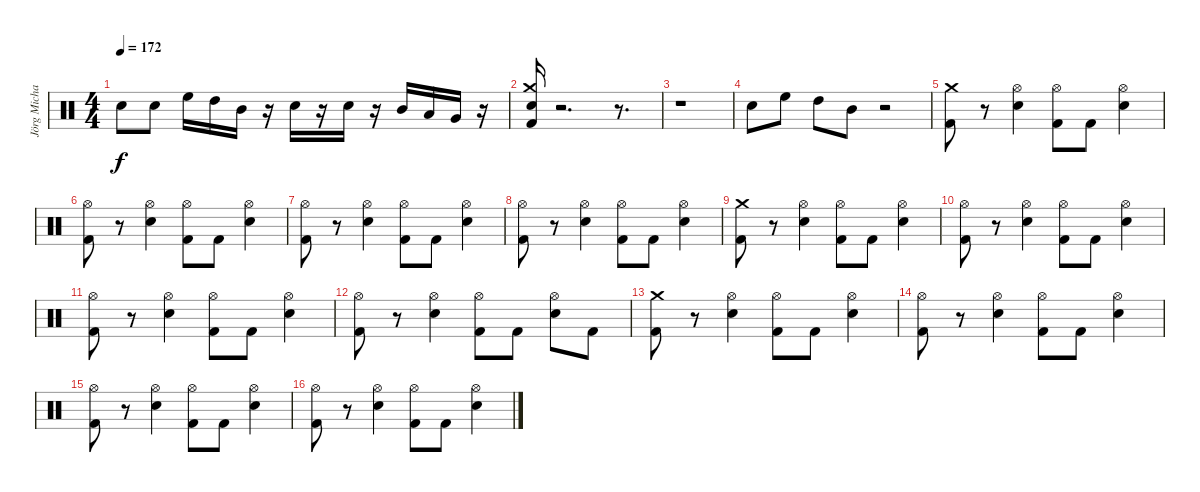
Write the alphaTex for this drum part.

\track ("Jörg Michael" "Jörg Micha") {instrument percussion}
\staff {score}
\articulation defaults
\ts (4 4)
\tempo 172
\clef neutral
\ks c "Electric Snare (hit)".8{dy f} "Electric Snare (hit)".8 "High Floor Tom (hit)".16 "High Tom (hit)".16 "Mid Tom (hit)".16
r.16 "Electric Snare (hit)".16 r.16 "Electric Snare (hit)".16 r.16 "Mid Tom (hit)".16 "Low Tom (hit)".16 "Very Low Tom (hit)".16 r.16 |
("Crash medium (hit)" "Kick (hit) 2" "Electric Snare (hit)").16 r.2{d} r.8{d} |
r.1 |
"Electric Snare (hit)".8 "High Floor Tom (hit)".8 "High Tom (hit)".8 "Mid Tom (hit)".8 r.2 |
("Kick (hit) 2" "Crash medium (hit)").8 r.8 ("Hi-Hat (open)" "Electric Snare (hit)").4 ("Hi-Hat (open)" "Kick (hit) 2").8 "Kick (hit) 2".8 ("Hi-Hat (open)" "Electric Snare (hit)").4 |
("Hi-Hat (open)" "Kick (hit) 2").8 r.8 ("Hi-Hat (open)" "Electric Snare (hit)").4 ("Hi-Hat (open)" "Kick (hit) 2").8 "Kick (hit) 2".8 ("Hi-Hat (open)" "Electric Snare (hit)").4 |
("Hi-Hat (open)" "Kick (hit) 2").8 r.8 ("Hi-Hat (open)" "Electric Snare (hit)").4 ("Hi-Hat (open)" "Kick (hit) 2").8 "Kick (hit) 2".8 ("Hi-Hat (open)" "Electric Snare (hit)").4 |
("Hi-Hat (open)" "Kick (hit) 2").8 r.8 ("Hi-Hat (open)" "Electric Snare (hit)").4 ("Hi-Hat (open)" "Kick (hit) 2").8 "Kick (hit) 2".8 ("Hi-Hat (open)" "Electric Snare (hit)").4 |
("Kick (hit) 2" "Crash medium (hit)").8 r.8 ("Hi-Hat (open)" "Electric Snare (hit)").4 ("Hi-Hat (open)" "Kick (hit) 2").8 "Kick (hit) 2".8 ("Hi-Hat (open)" "Electric Snare (hit)").4 |
("Hi-Hat (open)" "Kick (hit) 2").8 r.8 ("Hi-Hat (open)" "Electric Snare (hit)").4 ("Hi-Hat (open)" "Kick (hit) 2").8 "Kick (hit) 2".8 ("Hi-Hat (open)" "Electric Snare (hit)").4 |
("Hi-Hat (open)" "Kick (hit) 2").8 r.8 ("Hi-Hat (open)" "Electric Snare (hit)").4 ("Hi-Hat (open)" "Kick (hit) 2").8 "Kick (hit) 2".8 ("Hi-Hat (open)" "Electric Snare (hit)").4 |
("Hi-Hat (open)" "Kick (hit) 2").8 r.8 ("Hi-Hat (open)" "Electric Snare (hit)").4 ("Hi-Hat (open)" "Kick (hit) 2").8 "Kick (hit) 2".8 ("Hi-Hat (open)" "Electric Snare (hit)").8 "Kick (hit) 2".8 |
("Kick (hit) 2" "Crash medium (hit)").8 r.8 ("Hi-Hat (open)" "Electric Snare (hit)").4 ("Hi-Hat (open)" "Kick (hit) 2").8 "Kick (hit) 2".8 ("Hi-Hat (open)" "Electric Snare (hit)").4 |
("Hi-Hat (open)" "Kick (hit) 2").8 r.8 ("Hi-Hat (open)" "Electric Snare (hit)").4 ("Hi-Hat (open)" "Kick (hit) 2").8 "Kick (hit) 2".8 ("Hi-Hat (open)" "Electric Snare (hit)").4 |
("Hi-Hat (open)" "Kick (hit) 2").8 r.8 ("Hi-Hat (open)" "Electric Snare (hit)").4 ("Hi-Hat (open)" "Kick (hit) 2").8 "Kick (hit) 2".8 ("Hi-Hat (open)" "Electric Snare (hit)").4 |
("Hi-Hat (open)" "Kick (hit) 2").8 r.8 ("Hi-Hat (open)" "Electric Snare (hit)").4 ("Hi-Hat (open)" "Kick (hit) 2").8 "Kick (hit) 2".8 ("Hi-Hat (open)" "Electric Snare (hit)").4
